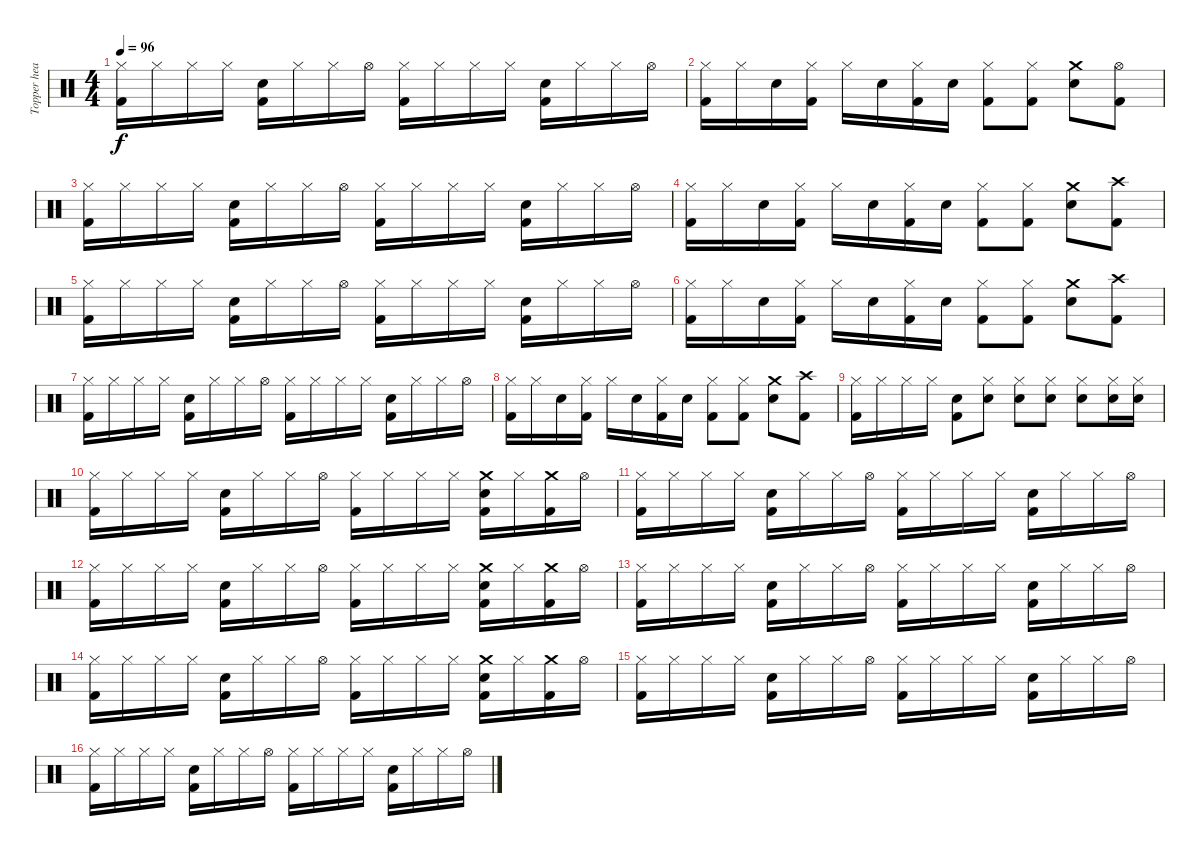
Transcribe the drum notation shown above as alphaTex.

\track ("Topper headon (drum)" "Topper hea") {instrument percussion}
\staff {score}
\articulation defaults
\ts (4 4)
\tempo 96
\clef neutral
\ks c
("Hi-Hat (closed)" "Kick (hit) 2").16{dy f} "Hi-Hat (closed)".16 "Hi-Hat (closed)".16 "Hi-Hat (closed)".16 ("Electric Snare (hit)" "Kick (hit) 2").16 "Hi-Hat (closed)".16 "Hi-Hat (closed)".16 "Hi-Hat (open)".16 ("Hi-Hat (closed)" "Kick (hit) 2").16 "Hi-Hat (closed)".16 "Hi-Hat (closed)".16 "Hi-Hat (closed)".16 ("Electric Snare (hit)" "Kick (hit) 2").16 "Hi-Hat (closed)".16 "Hi-Hat (closed)".16 "Hi-Hat (open)".16 |
("Hi-Hat (closed)" "Kick (hit) 2").16 "Hi-Hat (closed)".16 "Electric Snare (hit)".16 ("Hi-Hat (closed)" "Kick (hit) 2").16 "Hi-Hat (closed)".16 "Electric Snare (hit)".16 ("Hi-Hat (closed)" "Kick (hit) 2").16 "Electric Snare (hit)".16 ("Hi-Hat (closed)" "Kick (hit) 2").8 ("Hi-Hat (closed)" "Kick (hit) 2").8 ("Crash medium (hit)" "Electric Snare (hit)").8 ("Hi-Hat (open)" "Kick (hit) 2").8 |
("Hi-Hat (closed)" "Kick (hit) 2").16 "Hi-Hat (closed)".16 "Hi-Hat (closed)".16 "Hi-Hat (closed)".16 ("Electric Snare (hit)" "Kick (hit) 2").16 "Hi-Hat (closed)".16 "Hi-Hat (closed)".16 "Hi-Hat (open)".16 ("Hi-Hat (closed)" "Kick (hit) 2").16 "Hi-Hat (closed)".16 "Hi-Hat (closed)".16 "Hi-Hat (closed)".16 ("Electric Snare (hit)" "Kick (hit) 2").16 "Hi-Hat (closed)".16 "Hi-Hat (closed)".16 "Hi-Hat (open)".16 |
("Hi-Hat (closed)" "Kick (hit) 2").16 "Hi-Hat (closed)".16 "Electric Snare (hit)".16 ("Hi-Hat (closed)" "Kick (hit) 2").16 "Hi-Hat (closed)".16 "Electric Snare (hit)".16 ("Hi-Hat (closed)" "Kick (hit) 2").16 "Electric Snare (hit)".16 ("Hi-Hat (closed)" "Kick (hit) 2").8 ("Hi-Hat (closed)" "Kick (hit) 2").8 ("Crash medium (hit)" "Electric Snare (hit)").8 ("Crash high (hit)" "Kick (hit) 2").8 |
("Hi-Hat (closed)" "Kick (hit) 2").16 "Hi-Hat (closed)".16 "Hi-Hat (closed)".16 "Hi-Hat (closed)".16 ("Electric Snare (hit)" "Kick (hit) 2").16 "Hi-Hat (closed)".16 "Hi-Hat (closed)".16 "Hi-Hat (open)".16 ("Hi-Hat (closed)" "Kick (hit) 2").16 "Hi-Hat (closed)".16 "Hi-Hat (closed)".16 "Hi-Hat (closed)".16 ("Electric Snare (hit)" "Kick (hit) 2").16 "Hi-Hat (closed)".16 "Hi-Hat (closed)".16 "Hi-Hat (open)".16 |
("Hi-Hat (closed)" "Kick (hit) 2").16 "Hi-Hat (closed)".16 "Electric Snare (hit)".16 ("Hi-Hat (closed)" "Kick (hit) 2").16 "Hi-Hat (closed)".16 "Electric Snare (hit)".16 ("Hi-Hat (closed)" "Kick (hit) 2").16 "Electric Snare (hit)".16 ("Hi-Hat (closed)" "Kick (hit) 2").8 ("Hi-Hat (closed)" "Kick (hit) 2").8 ("Crash medium (hit)" "Electric Snare (hit)").8 ("Crash high (hit)" "Kick (hit) 2").8 |
("Hi-Hat (closed)" "Kick (hit) 2").16 "Hi-Hat (closed)".16 "Hi-Hat (closed)".16 "Hi-Hat (closed)".16 ("Electric Snare (hit)" "Kick (hit) 2").16 "Hi-Hat (closed)".16 "Hi-Hat (closed)".16 "Hi-Hat (open)".16 ("Hi-Hat (closed)" "Kick (hit) 2").16 "Hi-Hat (closed)".16 "Hi-Hat (closed)".16 "Hi-Hat (closed)".16 ("Electric Snare (hit)" "Kick (hit) 2").16 "Hi-Hat (closed)".16 "Hi-Hat (closed)".16 "Hi-Hat (open)".16 |
("Hi-Hat (closed)" "Kick (hit) 2").16 "Hi-Hat (closed)".16 "Electric Snare (hit)".16 ("Hi-Hat (closed)" "Kick (hit) 2").16 "Hi-Hat (closed)".16 "Electric Snare (hit)".16 ("Hi-Hat (closed)" "Kick (hit) 2").16 "Electric Snare (hit)".16 ("Hi-Hat (closed)" "Kick (hit) 2").8 ("Hi-Hat (closed)" "Kick (hit) 2").8 ("Crash medium (hit)" "Electric Snare (hit)").8 ("Crash high (hit)" "Kick (hit) 2").8 |
("Hi-Hat (closed)" "Kick (hit) 2").16 "Hi-Hat (closed)".16 "Hi-Hat (closed)".16 "Hi-Hat (closed)".16 ("Electric Snare (hit)" "Kick (hit) 2").8 ("Hi-Hat (closed)" "Electric Snare (hit)").8 ("Hi-Hat (closed)" "Electric Snare (hit)").8 ("Hi-Hat (closed)" "Electric Snare (hit)").8 ("Hi-Hat (closed)" "Electric Snare (hit)").8 ("Hi-Hat (closed)" "Electric Snare (hit)").16 ("Hi-Hat (closed)" "Electric Snare (hit)").16 |
("Hi-Hat (closed)" "Kick (hit) 2").16 "Hi-Hat (closed)".16 "Hi-Hat (closed)".16 "Hi-Hat (closed)".16 ("Electric Snare (hit)" "Kick (hit) 2").16 "Hi-Hat (closed)".16 "Hi-Hat (closed)".16 "Hi-Hat (open)".16 ("Hi-Hat (closed)" "Kick (hit) 2").16 "Hi-Hat (closed)".16 "Hi-Hat (closed)".16 "Hi-Hat (closed)".16 ("Crash medium (hit)" "Electric Snare (hit)" "Kick (hit) 2").16 "Hi-Hat (closed)".16 ("Crash medium (hit)" "Kick (hit) 2").16 "Hi-Hat (open)".16 |
("Hi-Hat (closed)" "Kick (hit) 2").16 "Hi-Hat (closed)".16 "Hi-Hat (closed)".16 "Hi-Hat (closed)".16 ("Electric Snare (hit)" "Kick (hit) 2").16 "Hi-Hat (closed)".16 "Hi-Hat (closed)".16 "Hi-Hat (open)".16 ("Hi-Hat (closed)" "Kick (hit) 2").16 "Hi-Hat (closed)".16 "Hi-Hat (closed)".16 "Hi-Hat (closed)".16 ("Electric Snare (hit)" "Kick (hit) 2").16 "Hi-Hat (closed)".16 "Hi-Hat (closed)".16 "Hi-Hat (open)".16 |
("Hi-Hat (closed)" "Kick (hit) 2").16 "Hi-Hat (closed)".16 "Hi-Hat (closed)".16 "Hi-Hat (closed)".16 ("Electric Snare (hit)" "Kick (hit) 2").16 "Hi-Hat (closed)".16 "Hi-Hat (closed)".16 "Hi-Hat (open)".16 ("Hi-Hat (closed)" "Kick (hit) 2").16 "Hi-Hat (closed)".16 "Hi-Hat (closed)".16 "Hi-Hat (closed)".16 ("Crash medium (hit)" "Electric Snare (hit)" "Kick (hit) 2").16 "Hi-Hat (closed)".16 ("Crash medium (hit)" "Kick (hit) 2").16 "Hi-Hat (open)".16 |
("Hi-Hat (closed)" "Kick (hit) 2").16 "Hi-Hat (closed)".16 "Hi-Hat (closed)".16 "Hi-Hat (closed)".16 ("Electric Snare (hit)" "Kick (hit) 2").16 "Hi-Hat (closed)".16 "Hi-Hat (closed)".16 "Hi-Hat (open)".16 ("Hi-Hat (closed)" "Kick (hit) 2").16 "Hi-Hat (closed)".16 "Hi-Hat (closed)".16 "Hi-Hat (closed)".16 ("Electric Snare (hit)" "Kick (hit) 2").16 "Hi-Hat (closed)".16 "Hi-Hat (closed)".16 "Hi-Hat (open)".16 |
("Hi-Hat (closed)" "Kick (hit) 2").16 "Hi-Hat (closed)".16 "Hi-Hat (closed)".16 "Hi-Hat (closed)".16 ("Electric Snare (hit)" "Kick (hit) 2").16 "Hi-Hat (closed)".16 "Hi-Hat (closed)".16 "Hi-Hat (open)".16 ("Hi-Hat (closed)" "Kick (hit) 2").16 "Hi-Hat (closed)".16 "Hi-Hat (closed)".16 "Hi-Hat (closed)".16 ("Crash medium (hit)" "Electric Snare (hit)" "Kick (hit) 2").16 "Hi-Hat (closed)".16 ("Crash medium (hit)" "Kick (hit) 2").16 "Hi-Hat (open)".16 |
("Hi-Hat (closed)" "Kick (hit) 2").16 "Hi-Hat (closed)".16 "Hi-Hat (closed)".16 "Hi-Hat (closed)".16 ("Electric Snare (hit)" "Kick (hit) 2").16 "Hi-Hat (closed)".16 "Hi-Hat (closed)".16 "Hi-Hat (open)".16 ("Hi-Hat (closed)" "Kick (hit) 2").16 "Hi-Hat (closed)".16 "Hi-Hat (closed)".16 "Hi-Hat (closed)".16 ("Electric Snare (hit)" "Kick (hit) 2").16 "Hi-Hat (closed)".16 "Hi-Hat (closed)".16 "Hi-Hat (open)".16 |
("Hi-Hat (closed)" "Kick (hit) 2").16 "Hi-Hat (closed)".16 "Hi-Hat (closed)".16 "Hi-Hat (closed)".16 ("Electric Snare (hit)" "Kick (hit) 2").16 "Hi-Hat (closed)".16 "Hi-Hat (closed)".16 "Hi-Hat (open)".16 ("Hi-Hat (closed)" "Kick (hit) 2").16 "Hi-Hat (closed)".16 "Hi-Hat (closed)".16 "Hi-Hat (closed)".16 ("Electric Snare (hit)" "Kick (hit) 2").16 "Hi-Hat (closed)".16 "Hi-Hat (closed)".16 "Hi-Hat (open)".16
